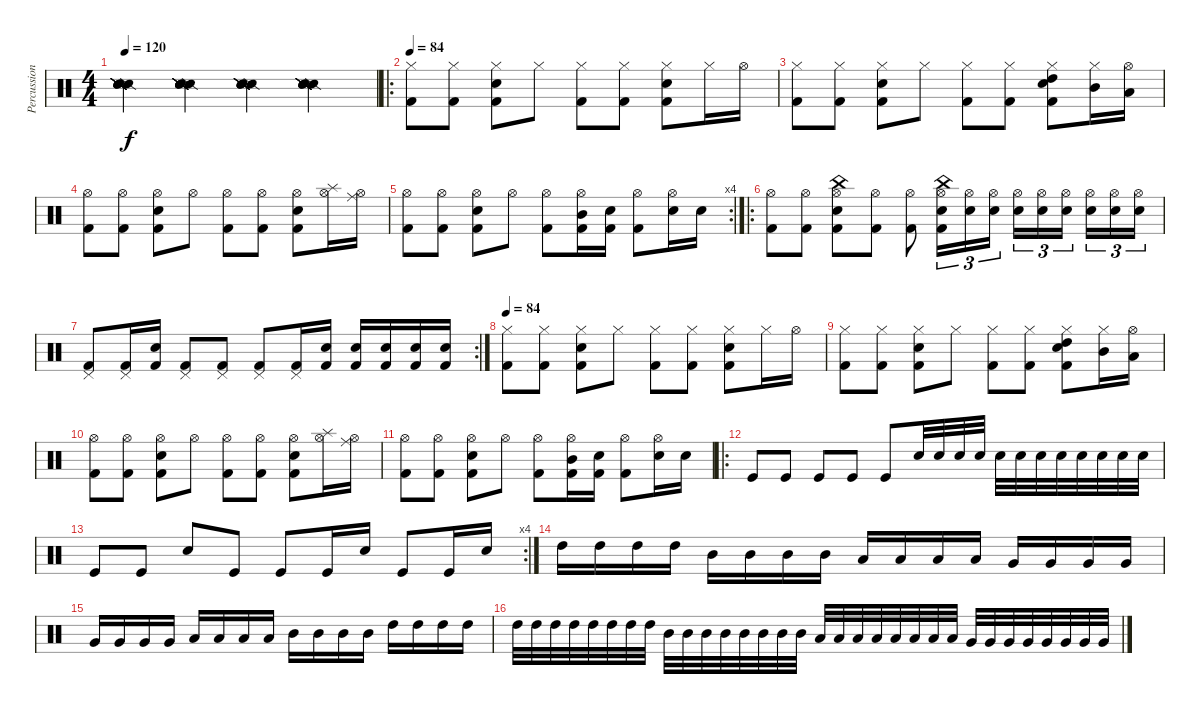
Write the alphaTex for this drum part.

\track ("Percussion" "Percussion") {instrument percussion}
\staff {score}
\articulation defaults
\ts (4 4)
\tempo 120
\tempo 84
\tempo 120
\clef neutral
\ks c
("Snare (side stick) 2" "Snare (side stick) 2" "Snare (side stick) 2" "Snare (side stick) 2" "Snare (side stick) 2" "Snare (side stick) 2").4{dy f} ("Snare (side stick) 2" "Snare (side stick) 2" "Snare (side stick) 2" "Snare (side stick) 2" "Snare (side stick) 2" "Snare (side stick) 2").4 ("Snare (side stick) 2" "Snare (side stick) 2" "Snare (side stick) 2" "Snare (side stick) 2" "Snare (side stick) 2" "Snare (side stick) 2").4 ("Snare (side stick) 2" "Snare (side stick) 2" "Snare (side stick) 2" "Snare (side stick) 2" "Snare (side stick) 2" "Snare (side stick) 2").4 |
\ro
\tempo 84
("Hi-Hat (closed)" "Kick (hit) 2").8 ("Hi-Hat (closed)" "Kick (hit) 2").8 ("Hi-Hat (closed)" "Electric Snare (hit)" "Kick (hit) 2").8 "Hi-Hat (closed)".8 ("Hi-Hat (closed)" "Kick (hit) 2").8 ("Hi-Hat (closed)" "Kick (hit) 2").8 ("Hi-Hat (closed)" "Electric Snare (hit)" "Kick (hit) 2").8 "Hi-Hat (closed)".16 "Hi-Hat (open)".16 |
("Hi-Hat (closed)" "Kick (hit) 2").8 ("Hi-Hat (closed)" "Kick (hit) 2").8 ("Hi-Hat (closed)" "Electric Snare (hit)" "Kick (hit) 2").8 "Hi-Hat (closed)".8 ("Hi-Hat (closed)" "Kick (hit) 2").8 ("Hi-Hat (closed)" "Kick (hit) 2").8 ("Hi-Hat (closed)" "High Tom (hit)" "Electric Snare (hit)" "Kick (hit) 2").8 ("Hi-Hat (closed)" "Mid Tom (hit)").16 ("Hi-Hat (open)" "Low Tom (hit)").16 |
("Hi-Hat (open)" "Kick (hit) 2").8 ("Hi-Hat (open)" "Kick (hit) 2").8 ("Hi-Hat (open)" "Electric Snare (hit)" "Kick (hit) 2").8 "Hi-Hat (open)".8 ("Hi-Hat (open)" "Kick (hit) 2").8 ("Hi-Hat (open)" "Kick (hit) 2").8 ("Hi-Hat (open)" "Electric Snare (hit)" "Kick (hit) 2").8 ("Hi-Hat (open)" "Splash (hit)").16 ("Hi-Hat (open)" "Ride (middle)").16 |
\rc 4
("Hi-Hat (open)" "Kick (hit) 2").8 ("Hi-Hat (open)" "Kick (hit) 2").8 ("Hi-Hat (open)" "Electric Snare (hit)" "Kick (hit) 2").8 "Hi-Hat (open)".8 ("Hi-Hat (open)" "Kick (hit) 2").8 ("Hi-Hat (open)" "Mid Tom (hit)" "Kick (hit) 2").16 ("Electric Snare (hit)" "Kick (hit) 2").16 ("Hi-Hat (open)" "Kick (hit) 2").8 ("Hi-Hat (open)" "Electric Snare (hit)").16 "Electric Snare (hit)".16 |
\ro
("Hi-Hat (open)" "Kick (hit) 2").8 ("Hi-Hat (open)" "Kick (hit) 2").8 ("Hi-Hat (open)" "China (hit)" "Electric Snare (hit)" "Kick (hit) 2").8 ("Hi-Hat (open)" "Kick (hit) 2").8 ("Hi-Hat (open)" "Kick (hit) 2").8 ("Hi-Hat (open)" "China (hit)" "Electric Snare (hit)" "Kick (hit) 2").16{tu (3 2)} ("Hi-Hat (open)" "Electric Snare (hit)").16{tu (3 2)} ("Hi-Hat (open)" "Electric Snare (hit)").16{tu (3 2)} ("Hi-Hat (open)" "Electric Snare (hit)").16{tu (3 2)} ("Hi-Hat (open)" "Electric Snare (hit)").16{tu (3 2)} ("Hi-Hat (open)" "Electric Snare (hit)").16{tu (3 2)} ("Hi-Hat (open)" "Electric Snare (hit)").16{tu (3 2)} ("Hi-Hat (open)" "Electric Snare (hit)").16{tu (3 2)} ("Hi-Hat (open)" "Electric Snare (hit)").16{tu (3 2)} |
\rc 2
("Pedal Hi-Hat (hit)" "Kick (hit) 2").8 ("Pedal Hi-Hat (hit)" "Kick (hit) 2").16 ("Electric Snare (hit)" "Kick (hit) 2").16 ("Pedal Hi-Hat (hit)" "Kick (hit) 2").8 ("Pedal Hi-Hat (hit)" "Kick (hit) 2").8 ("Pedal Hi-Hat (hit)" "Kick (hit) 2").8 ("Pedal Hi-Hat (hit)" "Kick (hit) 2").16 ("Electric Snare (hit)" "Kick (hit) 2").16 ("Electric Snare (hit)" "Kick (hit) 2").16 ("Electric Snare (hit)" "Kick (hit) 2").16 ("Electric Snare (hit)" "Kick (hit) 2").16 ("Electric Snare (hit)" "Kick (hit) 2").16 |
\tempo 84
("Hi-Hat (closed)" "Kick (hit) 2").8 ("Hi-Hat (closed)" "Kick (hit) 2").8 ("Hi-Hat (closed)" "Electric Snare (hit)" "Kick (hit) 2").8 "Hi-Hat (closed)".8 ("Hi-Hat (closed)" "Kick (hit) 2").8 ("Hi-Hat (closed)" "Kick (hit) 2").8 ("Hi-Hat (closed)" "Electric Snare (hit)" "Kick (hit) 2").8 "Hi-Hat (closed)".16 "Hi-Hat (open)".16 |
("Hi-Hat (closed)" "Kick (hit) 2").8 ("Hi-Hat (closed)" "Kick (hit) 2").8 ("Hi-Hat (closed)" "Electric Snare (hit)" "Kick (hit) 2").8 "Hi-Hat (closed)".8 ("Hi-Hat (closed)" "Kick (hit) 2").8 ("Hi-Hat (closed)" "Kick (hit) 2").8 ("Hi-Hat (closed)" "High Tom (hit)" "Electric Snare (hit)" "Kick (hit) 2").8 ("Hi-Hat (closed)" "Mid Tom (hit)").16 ("Hi-Hat (open)" "Low Tom (hit)").16 |
("Hi-Hat (open)" "Kick (hit) 2").8 ("Hi-Hat (open)" "Kick (hit) 2").8 ("Hi-Hat (open)" "Electric Snare (hit)" "Kick (hit) 2").8 "Hi-Hat (open)".8 ("Hi-Hat (open)" "Kick (hit) 2").8 ("Hi-Hat (open)" "Kick (hit) 2").8 ("Hi-Hat (open)" "Electric Snare (hit)" "Kick (hit) 2").8 ("Hi-Hat (open)" "Splash (hit)").16 ("Hi-Hat (open)" "Ride (middle)").16 |
("Hi-Hat (open)" "Kick (hit) 2").8 ("Hi-Hat (open)" "Kick (hit) 2").8 ("Hi-Hat (open)" "Electric Snare (hit)" "Kick (hit) 2").8 "Hi-Hat (open)".8 ("Hi-Hat (open)" "Kick (hit) 2").8 ("Hi-Hat (open)" "Mid Tom (hit)" "Kick (hit) 2").16 ("Electric Snare (hit)" "Kick (hit) 2").16 ("Hi-Hat (open)" "Kick (hit) 2").8 ("Hi-Hat (open)" "Electric Snare (hit)").16 "Electric Snare (hit)".16 |
\ro "Kick (hit)".8 "Kick (hit)".8 "Kick (hit)".8 "Kick (hit)".8 "Kick (hit)".8 "Electric Snare (hit)".32 "Electric Snare (hit)".32 "Electric Snare (hit)".32 "Electric Snare (hit)".32 "Electric Snare (hit)".32 "Electric Snare (hit)".32 "Electric Snare (hit)".32 "Electric Snare (hit)".32 "Electric Snare (hit)".32 "Electric Snare (hit)".32 "Electric Snare (hit)".32 "Electric Snare (hit)".32
|
\rc 4 "Kick (hit)".8 "Kick (hit)".8 "Electric Snare (hit)".8 "Kick (hit)".8 "Kick (hit)".8 "Kick (hit)".16 "Electric Snare (hit)".16 "Kick (hit)".8 "Kick (hit)".16 "Electric Snare (hit)".16
|
"High Tom (hit)".16 "High Tom (hit)".16 "High Tom (hit)".16 "High Tom (hit)".16 "Mid Tom (hit)".16 "Mid Tom (hit)".16 "Mid Tom (hit)".16 "Mid Tom (hit)".16 "Low Tom (hit)".16 "Low Tom (hit)".16 "Low Tom (hit)".16 "Low Tom (hit)".16 "Very Low Tom (hit)".16 "Very Low Tom (hit)".16 "Very Low Tom (hit)".16 "Very Low Tom (hit)".16 |
"Very Low Tom (hit)".16 "Very Low Tom (hit)".16 "Very Low Tom (hit)".16 "Very Low Tom (hit)".16 "Low Tom (hit)".16 "Low Tom (hit)".16 "Low Tom (hit)".16 "Low Tom (hit)".16 "Mid Tom (hit)".16 "Mid Tom (hit)".16 "Mid Tom (hit)".16 "Mid Tom (hit)".16 "High Tom (hit)".16 "High Tom (hit)".16 "High Tom (hit)".16 "High Tom (hit)".16 |
"High Tom (hit)".32 "High Tom (hit)".32 "High Tom (hit)".32 "High Tom (hit)".32 "High Tom (hit)".32 "High Tom (hit)".32 "High Tom (hit)".32 "High Tom (hit)".32 "Mid Tom (hit)".32 "Mid Tom (hit)".32 "Mid Tom (hit)".32 "Mid Tom (hit)".32 "Mid Tom (hit)".32 "Mid Tom (hit)".32 "Mid Tom (hit)".32 "Mid Tom (hit)".32 "Low Tom (hit)".32 "Low Tom (hit)".32 "Low Tom (hit)".32 "Low Tom (hit)".32 "Low Tom (hit)".32 "Low Tom (hit)".32 "Low Tom (hit)".32 "Low Tom (hit)".32 "Very Low Tom (hit)".32 "Very Low Tom (hit)".32 "Very Low Tom (hit)".32 "Very Low Tom (hit)".32 "Very Low Tom (hit)".32 "Very Low Tom (hit)".32 "Very Low Tom (hit)".32 "Very Low Tom (hit)".32
